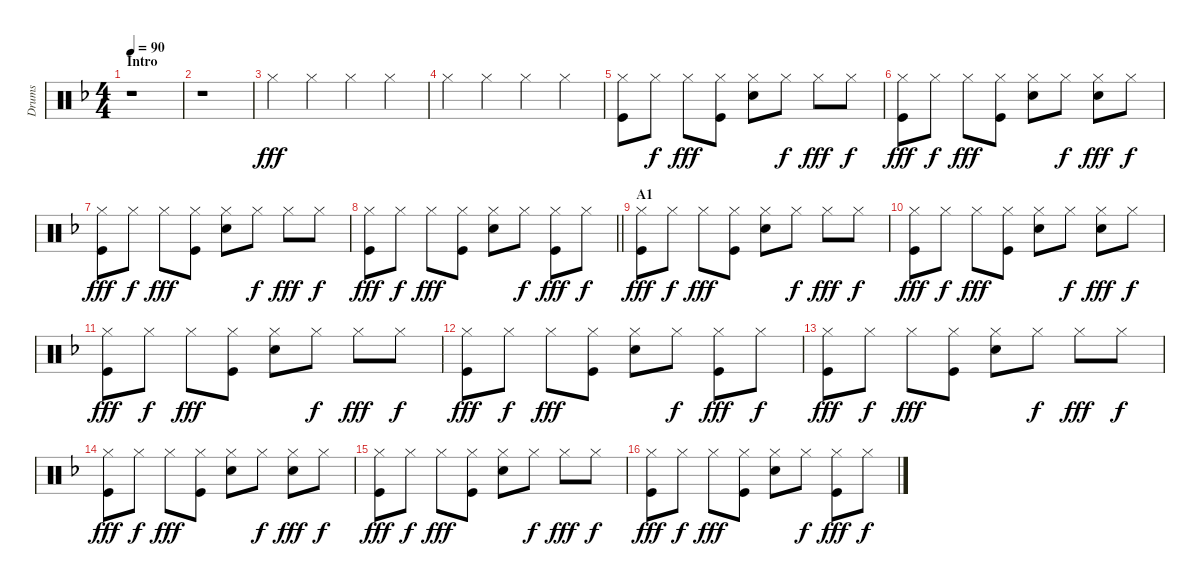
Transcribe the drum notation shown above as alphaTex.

\track ("Drums" "Drums") {instrument percussion}
\staff {score}
\articulation defaults
\ts (4 4)
\section ("" "Intro")
\tempo 90
\clef neutral
\ks f
r.1{dy fff} |
r.1 |
"Hi-Hat (closed)".4 "Hi-Hat (closed)".4 "Hi-Hat (closed)".4 "Hi-Hat (closed)".4 |
"Hi-Hat (closed)".4 "Hi-Hat (closed)".4 "Hi-Hat (closed)".4 "Hi-Hat (closed)".4 |
("Hi-Hat (closed)" "Kick (hit)").8 "Hi-Hat (closed)".8{dy f} "Hi-Hat (closed)".8{dy fff} ("Hi-Hat (closed)" "Kick (hit)").8 ("Hi-Hat (closed)" "Snare (hit) 2").8 "Hi-Hat (closed)".8{dy f} "Hi-Hat (closed)".8{dy fff} "Hi-Hat (closed)".8{dy f} |
("Hi-Hat (closed)" "Kick (hit)").8{dy fff} "Hi-Hat (closed)".8{dy f} "Hi-Hat (closed)".8{dy fff} ("Hi-Hat (closed)" "Kick (hit)").8 ("Hi-Hat (closed)" "Snare (hit) 2").8 "Hi-Hat (closed)".8{dy f} ("Hi-Hat (closed)" "Snare (hit) 2").8{dy fff} "Hi-Hat (closed)".8{dy f} |
("Hi-Hat (closed)" "Kick (hit)").8{dy fff} "Hi-Hat (closed)".8{dy f} "Hi-Hat (closed)".8{dy fff} ("Hi-Hat (closed)" "Kick (hit)").8 ("Hi-Hat (closed)" "Snare (hit) 2").8 "Hi-Hat (closed)".8{dy f} "Hi-Hat (closed)".8{dy fff} "Hi-Hat (closed)".8{dy f} |
\barLineRight lightlight
("Hi-Hat (closed)" "Kick (hit)").8{dy fff} "Hi-Hat (closed)".8{dy f} "Hi-Hat (closed)".8{dy fff} ("Hi-Hat (closed)" "Kick (hit)").8 ("Hi-Hat (closed)" "Snare (hit) 2").8 "Hi-Hat (closed)".8{dy f} ("Hi-Hat (closed)" "Kick (hit)").8{dy fff} "Hi-Hat (closed)".8{dy f} |
\section ("" "A1")
("Hi-Hat (closed)" "Kick (hit)").8{dy fff} "Hi-Hat (closed)".8{dy f} "Hi-Hat (closed)".8{dy fff} ("Hi-Hat (closed)" "Kick (hit)").8 ("Hi-Hat (closed)" "Snare (hit) 2").8 "Hi-Hat (closed)".8{dy f} "Hi-Hat (closed)".8{dy fff} "Hi-Hat (closed)".8{dy f} |
("Hi-Hat (closed)" "Kick (hit)").8{dy fff} "Hi-Hat (closed)".8{dy f} "Hi-Hat (closed)".8{dy fff} ("Hi-Hat (closed)" "Kick (hit)").8 ("Hi-Hat (closed)" "Snare (hit) 2").8 "Hi-Hat (closed)".8{dy f} ("Hi-Hat (closed)" "Snare (hit) 2").8{dy fff} "Hi-Hat (closed)".8{dy f} |
("Hi-Hat (closed)" "Kick (hit)").8{dy fff} "Hi-Hat (closed)".8{dy f} "Hi-Hat (closed)".8{dy fff} ("Hi-Hat (closed)" "Kick (hit)").8 ("Hi-Hat (closed)" "Snare (hit) 2").8 "Hi-Hat (closed)".8{dy f} "Hi-Hat (closed)".8{dy fff} "Hi-Hat (closed)".8{dy f} |
("Hi-Hat (closed)" "Kick (hit)").8{dy fff} "Hi-Hat (closed)".8{dy f} "Hi-Hat (closed)".8{dy fff} ("Hi-Hat (closed)" "Kick (hit)").8 ("Hi-Hat (closed)" "Snare (hit) 2").8 "Hi-Hat (closed)".8{dy f} ("Hi-Hat (closed)" "Kick (hit)").8{dy fff} "Hi-Hat (closed)".8{dy f} |
("Hi-Hat (closed)" "Kick (hit)").8{dy fff} "Hi-Hat (closed)".8{dy f} "Hi-Hat (closed)".8{dy fff} ("Hi-Hat (closed)" "Kick (hit)").8 ("Hi-Hat (closed)" "Snare (hit) 2").8 "Hi-Hat (closed)".8{dy f} "Hi-Hat (closed)".8{dy fff} "Hi-Hat (closed)".8{dy f} |
("Hi-Hat (closed)" "Kick (hit)").8{dy fff} "Hi-Hat (closed)".8{dy f} "Hi-Hat (closed)".8{dy fff} ("Hi-Hat (closed)" "Kick (hit)").8 ("Hi-Hat (closed)" "Snare (hit) 2").8 "Hi-Hat (closed)".8{dy f} ("Hi-Hat (closed)" "Snare (hit) 2").8{dy fff} "Hi-Hat (closed)".8{dy f} |
("Hi-Hat (closed)" "Kick (hit)").8{dy fff} "Hi-Hat (closed)".8{dy f} "Hi-Hat (closed)".8{dy fff} ("Hi-Hat (closed)" "Kick (hit)").8 ("Hi-Hat (closed)" "Snare (hit) 2").8 "Hi-Hat (closed)".8{dy f} "Hi-Hat (closed)".8{dy fff} "Hi-Hat (closed)".8{dy f} |
("Hi-Hat (closed)" "Kick (hit)").8{dy fff} "Hi-Hat (closed)".8{dy f} "Hi-Hat (closed)".8{dy fff} ("Hi-Hat (closed)" "Kick (hit)").8 ("Hi-Hat (closed)" "Snare (hit) 2").8 "Hi-Hat (closed)".8{dy f} ("Hi-Hat (closed)" "Kick (hit)").8{dy fff} "Hi-Hat (closed)".8{dy f}
